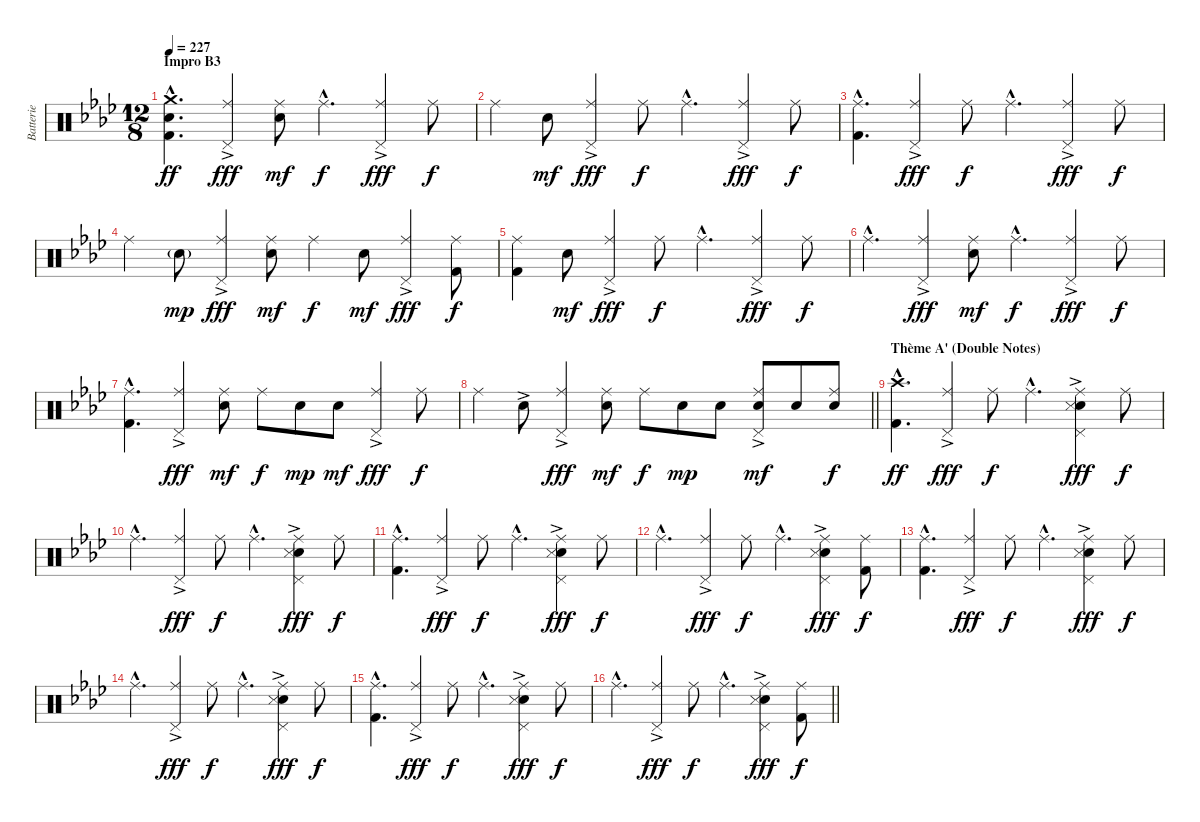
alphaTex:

\track ("Batterie" "Batterie") {instrument percussion}
\staff {score}
\articulation defaults
\ts (12 8)
\section ("" "Impro B3")
\tempo 227
\clef neutral
\ks fminor
("Crash medium (hit)"{hac} "Snare (hit) 2"{hac} "Kick (hit) 2"{hac}).4{d dy ff volume 11 balance 8} ("Ride (middle)" "Pedal Hi-Hat (hit)"{ac}).4{dy fff} ("Ride (middle)" "Snare (hit) 2").8{dy mf} "Ride (middle)"{hac}.4{d dy f} ("Ride (middle)" "Pedal Hi-Hat (hit)"{ac}).4{dy fff} "Ride (middle)".8{dy f} |
"Ride (middle)".4 "Snare (hit) 2".8{dy mf} ("Ride (middle)" "Pedal Hi-Hat (hit)"{ac}).4{dy fff} "Ride (middle)".8{dy f} "Ride (middle)"{hac}.4{d} ("Ride (middle)" "Pedal Hi-Hat (hit)"{ac}).4{dy fff} "Ride (middle)".8{dy f} |
("Ride (middle)"{hac} "Kick (hit) 2"{hac}).4{d} ("Ride (middle)" "Pedal Hi-Hat (hit)"{ac}).4{dy fff} "Ride (middle)".8{dy f} "Ride (middle)"{hac}.4{d} ("Ride (middle)" "Pedal Hi-Hat (hit)"{ac}).4{dy fff} "Ride (middle)".8{dy f} |
"Ride (middle)".4 "Snare (hit) 2"{g}.8{dy mp} ("Ride (middle)" "Pedal Hi-Hat (hit)"{ac}).4{dy fff} ("Ride (middle)" "Snare (hit) 2").8{dy mf} "Ride (middle)".4{dy f} "Snare (hit) 2".8{dy mf} ("Ride (middle)" "Pedal Hi-Hat (hit)"{ac}).4{dy fff} ("Ride (middle)" "Kick (hit) 2").8{dy f} |
("Ride (middle)" "Kick (hit) 2").4 "Snare (hit) 2".8{dy mf} ("Ride (middle)" "Pedal Hi-Hat (hit)"{ac}).4{dy fff} "Ride (middle)".8{dy f} "Ride (middle)"{hac}.4{d} ("Ride (middle)" "Pedal Hi-Hat (hit)"{ac}).4{dy fff} "Ride (middle)".8{dy f} |
"Ride (middle)"{hac}.4{d} ("Ride (middle)" "Pedal Hi-Hat (hit)"{ac}).4{dy fff} ("Ride (middle)" "Snare (hit) 2").8{dy mf} "Ride (middle)"{hac}.4{d dy f} ("Ride (middle)" "Pedal Hi-Hat (hit)"{ac}).4{dy fff} "Ride (middle)".8{dy f} |
("Ride (middle)"{hac} "Kick (hit) 2"{hac}).4{d} ("Ride (middle)" "Pedal Hi-Hat (hit)"{ac}).4{dy fff} ("Ride (middle)" "Snare (hit) 2").8{dy mf} "Ride (middle)".8{dy f} "Snare (hit) 2".8{dy mp} "Snare (hit) 2".8{dy mf} ("Ride (middle)" "Pedal Hi-Hat (hit)"{ac}).4{dy fff} "Ride (middle)".8{dy f} |
\barLineRight lightlight "Ride (middle)".4 "Snare (hit) 2"{ac}.8
("Ride (middle)" "Pedal Hi-Hat (hit)"{ac}).4{dy fff} ("Ride (middle)" "Snare (hit) 2").8{dy mf} "Ride (middle)".8{dy f} "Snare (hit) 2".8{dy mp} "Snare (hit) 2".8 ("Ride (middle)" "Pedal Hi-Hat (hit)"{ac} "Snare (hit) 2").8{dy mf} "Snare (hit) 2".8 ("Ride (middle)" "Snare (hit) 2").8{dy f} |
\section ("" "Thème A' (Double Notes)")
("Crash high (hit)"{hac} "Kick (hit) 2"{hac}).4{d dy ff volume 12 balance 8} ("Ride (middle)" "Pedal Hi-Hat (hit)"{ac}).4{dy fff} "Ride (middle)".8{dy f} "Ride (middle)"{hac}.4{d} ("Ride (middle)" "Pedal Hi-Hat (hit)"{ac} "Snare (hit) 2"{ac} "Snare (side stick) 3"{ac}).4{dy fff} "Ride (middle)".8{dy f} |
"Ride (middle)"{hac}.4{d} ("Ride (middle)" "Pedal Hi-Hat (hit)"{ac}).4{dy fff} "Ride (middle)".8{dy f} "Ride (middle)"{hac}.4{d} ("Ride (middle)" "Pedal Hi-Hat (hit)"{ac} "Snare (hit) 2"{ac} "Snare (side stick) 3"{ac}).4{dy fff} "Ride (middle)".8{dy f} |
("Ride (middle)"{hac} "Kick (hit) 2"{hac}).4{d} ("Ride (middle)" "Pedal Hi-Hat (hit)"{ac}).4{dy fff} "Ride (middle)".8{dy f} "Ride (middle)"{hac}.4{d} ("Ride (middle)" "Pedal Hi-Hat (hit)"{ac} "Snare (hit) 2"{ac} "Snare (side stick) 3"{ac}).4{dy fff} "Ride (middle)".8{dy f} |
"Ride (middle)"{hac}.4{d} ("Ride (middle)" "Pedal Hi-Hat (hit)"{ac}).4{dy fff} "Ride (middle)".8{dy f} "Ride (middle)"{hac}.4{d} ("Ride (middle)" "Pedal Hi-Hat (hit)"{ac} "Snare (hit) 2"{ac} "Snare (side stick) 3"{ac}).4{dy fff} ("Ride (middle)" "Kick (hit) 2").8{dy f} |
("Ride (middle)"{hac} "Kick (hit) 2"{hac}).4{d} ("Ride (middle)" "Pedal Hi-Hat (hit)"{ac}).4{dy fff} "Ride (middle)".8{dy f} "Ride (middle)"{hac}.4{d} ("Ride (middle)" "Pedal Hi-Hat (hit)"{ac} "Snare (hit) 2"{ac} "Snare (side stick) 3"{ac}).4{dy fff} "Ride (middle)".8{dy f} |
"Ride (middle)"{hac}.4{d} ("Ride (middle)" "Pedal Hi-Hat (hit)"{ac}).4{dy fff} "Ride (middle)".8{dy f} "Ride (middle)"{hac}.4{d} ("Ride (middle)" "Pedal Hi-Hat (hit)"{ac} "Snare (hit) 2"{ac} "Snare (side stick) 3"{ac}).4{dy fff} "Ride (middle)".8{dy f} |
("Ride (middle)"{hac} "Kick (hit) 2"{hac}).4{d} ("Ride (middle)" "Pedal Hi-Hat (hit)"{ac}).4{dy fff} "Ride (middle)".8{dy f} "Ride (middle)"{hac}.4{d} ("Ride (middle)" "Pedal Hi-Hat (hit)"{ac} "Snare (hit) 2"{ac} "Snare (side stick) 3"{ac}).4{dy fff} "Ride (middle)".8{dy f} |
\barLineRight lightlight "Ride (middle)"{hac}.4{d}
("Ride (middle)" "Pedal Hi-Hat (hit)"{ac}).4{dy fff} "Ride (middle)".8{dy f} "Ride (middle)"{hac}.4{d} ("Ride (middle)" "Pedal Hi-Hat (hit)"{ac} "Snare (hit) 2"{ac} "Snare (side stick) 3"{ac}).4{dy fff} ("Ride (middle)" "Kick (hit) 2").8{dy f}
